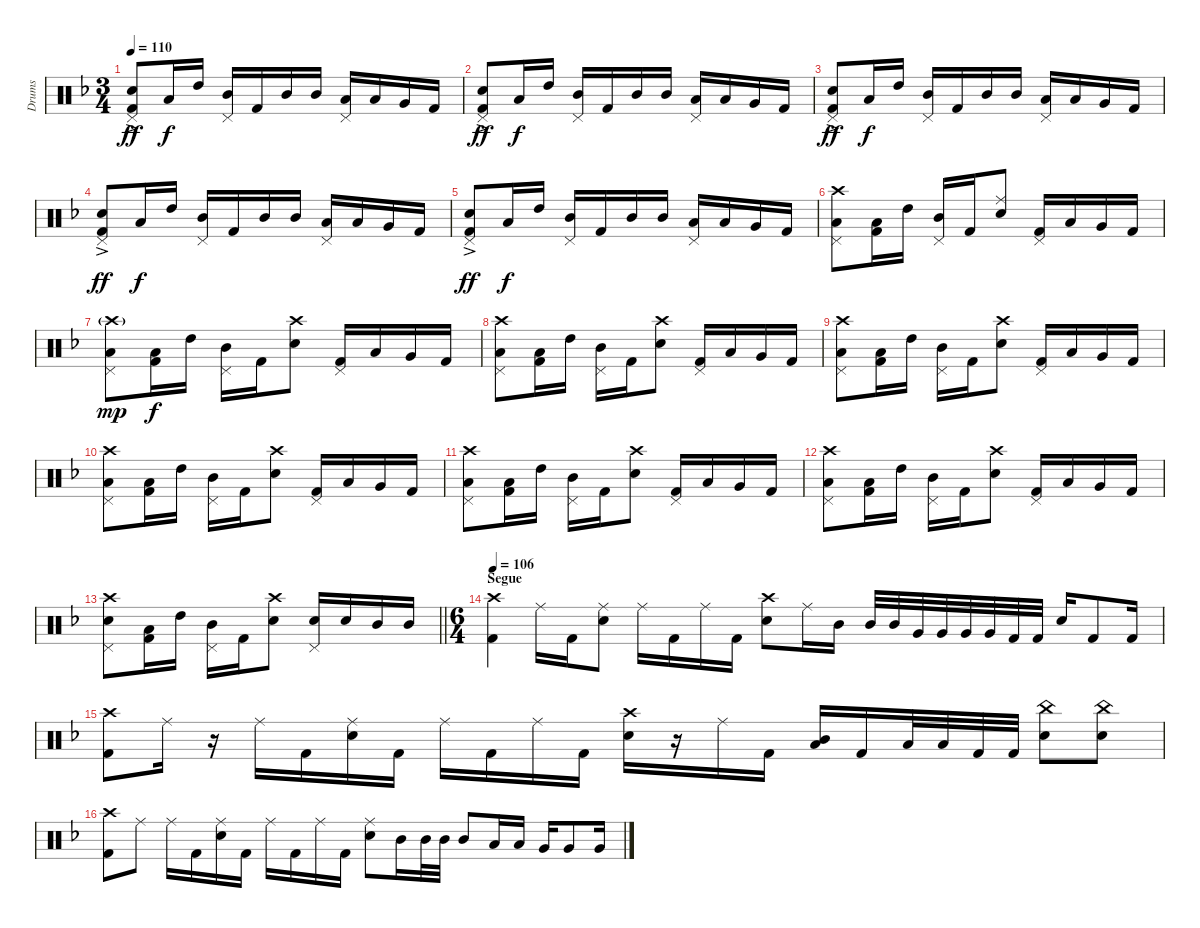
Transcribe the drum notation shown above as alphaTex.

\track ("Drums" "Drums") {instrument percussion}
\staff {score}
\articulation defaults
\ts (3 4)
\tempo 110
\clef neutral
\ks dminor
("Snare (hit) 2"{ac} "Kick (hit) 2" "Pedal Hi-Hat (hit)").8{dy ff} "Low Tom (hit)".16{dy f} "High Tom (hit)".16 ("Mid Tom (hit)" "Pedal Hi-Hat (hit)").16 "Kick (hit) 2".16 "Mid Tom (hit)".16 "Mid Tom (hit)".16 ("Low Tom (hit)" "Pedal Hi-Hat (hit)").16 "Low Tom (hit)".16 "Very Low Tom (hit)".16 "Kick (hit) 2".16 |
("Snare (hit) 2"{ac} "Kick (hit) 2" "Pedal Hi-Hat (hit)").8{dy ff} "Low Tom (hit)".16{dy f} "High Tom (hit)".16 ("Mid Tom (hit)" "Pedal Hi-Hat (hit)").16 "Kick (hit) 2".16 "Mid Tom (hit)".16 "Mid Tom (hit)".16 ("Low Tom (hit)" "Pedal Hi-Hat (hit)").16 "Low Tom (hit)".16 "Very Low Tom (hit)".16 "Kick (hit) 2".16 |
("Snare (hit) 2"{ac} "Kick (hit) 2" "Pedal Hi-Hat (hit)").8{dy ff} "Low Tom (hit)".16{dy f} "High Tom (hit)".16 ("Mid Tom (hit)" "Pedal Hi-Hat (hit)").16 "Kick (hit) 2".16 "Mid Tom (hit)".16 "Mid Tom (hit)".16 ("Low Tom (hit)" "Pedal Hi-Hat (hit)").16 "Low Tom (hit)".16 "Very Low Tom (hit)".16 "Kick (hit) 2".16 |
("Snare (hit) 2"{ac} "Kick (hit) 2" "Pedal Hi-Hat (hit)").8{dy ff} "Low Tom (hit)".16{dy f} "High Tom (hit)".16 ("Mid Tom (hit)" "Pedal Hi-Hat (hit)").16 "Kick (hit) 2".16 "Mid Tom (hit)".16 "Mid Tom (hit)".16 ("Low Tom (hit)" "Pedal Hi-Hat (hit)").16 "Low Tom (hit)".16 "Very Low Tom (hit)".16 "Kick (hit) 2".16 |
("Snare (hit) 2"{ac} "Kick (hit) 2" "Pedal Hi-Hat (hit)").8{dy ff} "Low Tom (hit)".16{dy f} "High Tom (hit)".16 ("Mid Tom (hit)" "Pedal Hi-Hat (hit)").16 "Kick (hit) 2".16 "Mid Tom (hit)".16 "Mid Tom (hit)".16 ("Low Tom (hit)" "Pedal Hi-Hat (hit)").16 "Low Tom (hit)".16 "Very Low Tom (hit)".16 "Kick (hit) 2".16 |
("Crash high (hit)" "Low Tom (hit)" "Pedal Hi-Hat (hit)").8 ("Low Tom (hit)" "Kick (hit) 2").16 "High Tom (hit)".16 ("Mid Tom (hit)" "Pedal Hi-Hat (hit)").16 "Kick (hit) 2".16 ("Ride (middle)" "Snare (hit) 2").8 ("Kick (hit) 2" "Pedal Hi-Hat (hit)").16 "Low Tom (hit)".16 "Very Low Tom (hit)".16 "Kick (hit) 2".16 |
("Crash high (hit)"{g} "Low Tom (hit)" "Pedal Hi-Hat (hit)").8{dy mp} ("Low Tom (hit)" "Kick (hit) 2").16{dy f} "High Tom (hit)".16 ("Mid Tom (hit)" "Pedal Hi-Hat (hit)").16 "Kick (hit) 2".16 ("Crash high (hit)" "Snare (hit) 2").8 ("Kick (hit) 2" "Pedal Hi-Hat (hit)").16 "Low Tom (hit)".16 "Very Low Tom (hit)".16 "Kick (hit) 2".16 |
("Crash high (hit)" "Low Tom (hit)" "Pedal Hi-Hat (hit)").8 ("Low Tom (hit)" "Kick (hit) 2").16 "High Tom (hit)".16 ("Mid Tom (hit)" "Pedal Hi-Hat (hit)").16 "Kick (hit) 2".16 ("Crash high (hit)" "Snare (hit) 2").8 ("Kick (hit) 2" "Pedal Hi-Hat (hit)").16 "Low Tom (hit)".16 "Very Low Tom (hit)".16 "Kick (hit) 2".16 |
("Crash high (hit)" "Low Tom (hit)" "Pedal Hi-Hat (hit)").8 ("Low Tom (hit)" "Kick (hit) 2").16 "High Tom (hit)".16 ("Mid Tom (hit)" "Pedal Hi-Hat (hit)").16 "Kick (hit) 2".16 ("Crash high (hit)" "Snare (hit) 2").8 ("Kick (hit) 2" "Pedal Hi-Hat (hit)").16 "Low Tom (hit)".16 "Very Low Tom (hit)".16 "Kick (hit) 2".16 |
("Crash high (hit)" "Low Tom (hit)" "Pedal Hi-Hat (hit)").8 ("Low Tom (hit)" "Kick (hit) 2").16 "High Tom (hit)".16 ("Mid Tom (hit)" "Pedal Hi-Hat (hit)").16 "Kick (hit) 2".16 ("Crash high (hit)" "Snare (hit) 2").8 ("Kick (hit) 2" "Pedal Hi-Hat (hit)").16 "Low Tom (hit)".16 "Very Low Tom (hit)".16 "Kick (hit) 2".16 |
("Crash high (hit)" "Low Tom (hit)" "Pedal Hi-Hat (hit)").8 ("Low Tom (hit)" "Kick (hit) 2").16 "High Tom (hit)".16 ("Mid Tom (hit)" "Pedal Hi-Hat (hit)").16 "Kick (hit) 2".16 ("Crash high (hit)" "Snare (hit) 2").8 ("Kick (hit) 2" "Pedal Hi-Hat (hit)").16 "Low Tom (hit)".16 "Very Low Tom (hit)".16 "Kick (hit) 2".16 |
("Crash high (hit)" "Low Tom (hit)" "Pedal Hi-Hat (hit)").8 ("Low Tom (hit)" "Kick (hit) 2").16 "High Tom (hit)".16 ("Mid Tom (hit)" "Pedal Hi-Hat (hit)").16 "Kick (hit) 2".16 ("Crash high (hit)" "Snare (hit) 2").8 ("Kick (hit) 2" "Pedal Hi-Hat (hit)").16 "Low Tom (hit)".16 "Very Low Tom (hit)".16 "Kick (hit) 2".16 |
\barLineRight lightlight
("Crash high (hit)" "Snare (hit) 2" "Pedal Hi-Hat (hit)").8 ("Low Tom (hit)" "Kick (hit) 2").16 "High Tom (hit)".16 ("Mid Tom (hit)" "Pedal Hi-Hat (hit)").16 "Kick (hit) 2".16 ("Crash high (hit)" "Snare (hit) 2").8 ("Snare (hit) 2" "Pedal Hi-Hat (hit)").16 "Snare (hit) 2".16 "Mid Tom (hit)".16 "Mid Tom (hit)".16 |
\ts (6 4)
\section ("" "Segue")
\tempo 106
("Crash high (hit)" "Kick (hit) 2").4 "Ride (middle)".16 "Kick (hit) 2".16 ("Ride (middle)" "Snare (hit) 2").8 "Ride (middle)".16 "Kick (hit) 2".16 "Ride (middle)".16 "Kick (hit) 2".16 ("Crash high (hit)" "Snare (hit) 2").8 "Ride (middle)".16 "Mid Tom (hit)".16 "Mid Tom (hit)".32 "Mid Tom (hit)".32 "Very Low Tom (hit)".32 "Very Low Tom (hit)".32 "Very Low Tom (hit)".32 "Very Low Tom (hit)".32 "Kick (hit) 2".32 "Kick (hit) 2".32 "Snare (hit) 2".16 "Kick (hit) 2".8 "Kick (hit) 2".16 |
("Crash high (hit)" "Kick (hit) 2").8 "Ride (middle)".16 r.16 "Ride (middle)".16 "Kick (hit) 2".16 ("Ride (middle)" "Snare (hit) 2").16 "Kick (hit) 2".16 "Ride (middle)".16 "Kick (hit) 2".16 "Ride (middle)".16 "Kick (hit) 2".16 ("Crash high (hit)" "Snare (hit) 2").16 r.16 "Ride (middle)".16 "Kick (hit) 2".16 ("Mid Tom (hit)" "Low Tom (hit)").16 "Kick (hit) 2".16 "Low Tom (hit)".32 "Low Tom (hit)".32 "Kick (hit) 2".32 "Kick (hit) 2".32 ("China (hit)" "Snare (hit) 2").8 ("China (hit)" "Snare (hit) 2").8 |
("Crash high (hit)" "Kick (hit) 2").8 "Ride (middle)".8 "Ride (middle)".16 "Kick (hit) 2".16 ("Ride (middle)" "Snare (hit) 2").16 "Kick (hit) 2".16 "Ride (middle)".16 "Kick (hit) 2".16 "Ride (middle)".16 "Kick (hit) 2".16 ("Ride (middle)" "Snare (hit) 2").8 "Mid Tom (hit)".16 "Mid Tom (hit)".32 "Mid Tom (hit)".32 "Mid Tom (hit)".8 "Low Tom (hit)".16 "Low Tom (hit)".16 "Very Low Tom (hit)".16 "Very Low Tom (hit)".8 "Very Low Tom (hit)".16
